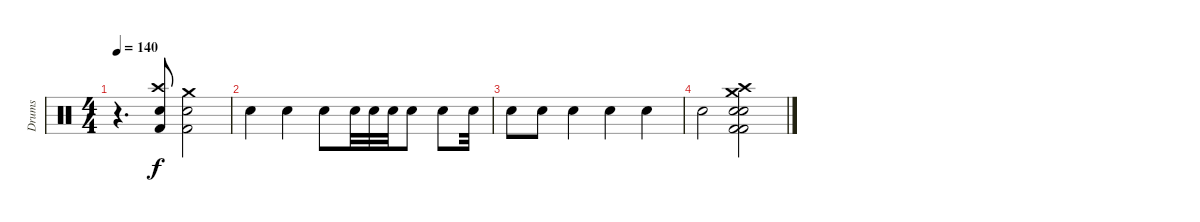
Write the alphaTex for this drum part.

\track ("Drums" "Drums") {instrument percussion}
\staff {score}
\articulation defaults
\ts (4 4)
\tempo 140
\clef neutral
\ks c
r.4{d dy f} ("Electric Snare (hit)" "Crash high (hit)" "Kick (hit) 2").8 ("Electric Snare (hit)" "Crash medium (hit)" "Kick (hit) 2").2 |
"Electric Snare (hit)".4 "Electric Snare (hit)".4 "Electric Snare (hit)".8 "Electric Snare (hit)".32 "Electric Snare (hit)".32 "Electric Snare (hit)".32 "Electric Snare (hit)".8 "Electric Snare (hit)".8 "Electric Snare (hit)".32 |
"Electric Snare (hit)".8 "Electric Snare (hit)".8 "Electric Snare (hit)".4 "Electric Snare (hit)".4 "Electric Snare (hit)".4 |
"Electric Snare (hit)".2 ("Electric Snare (hit)" "Kick (hit) 2" "Crash medium (hit)" "Crash high (hit)" "Kick (hit) 2" "Electric Snare (hit)").2
